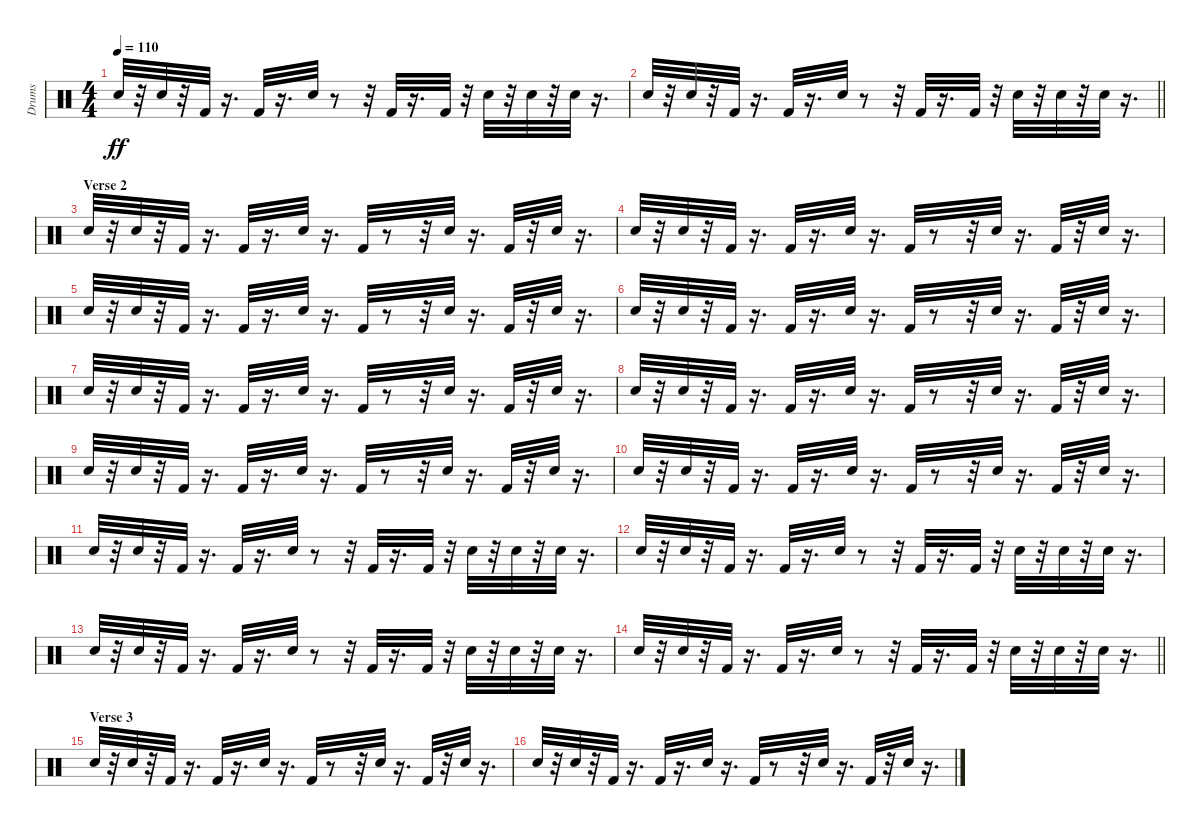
\track ("Drums" "Drums") {instrument percussion}
\staff {score}
\articulation defaults
\ts (4 4)
\tempo 110
\clef neutral
\ks c "Electric Snare (hit)".32{dy ff}
r.32 "Electric Snare (hit)".32 r.32 "Kick (hit) 2".32 r.16{d} "Kick (hit) 2".32 r.16{d} "Electric Snare (hit)".32 r.8 r.32 "Kick (hit) 2".32 r.16{d} "Kick (hit) 2".32 r.32 "Electric Snare (hit)".32 r.32 "Electric Snare (hit)".32 r.32 "Electric Snare (hit)".32 r.16{d} |
\barLineRight lightlight "Electric Snare (hit)".32
r.32 "Electric Snare (hit)".32 r.32 "Kick (hit) 2".32 r.16{d} "Kick (hit) 2".32 r.16{d} "Electric Snare (hit)".32 r.8 r.32 "Kick (hit) 2".32 r.16{d} "Kick (hit) 2".32 r.32 "Electric Snare (hit)".32 r.32 "Electric Snare (hit)".32 r.32 "Electric Snare (hit)".32 r.16{d} |
\section ("" "Verse 2")
"Electric Snare (hit)".32 r.32 "Electric Snare (hit)".32 r.32 "Kick (hit) 2".32 r.16{d} "Kick (hit) 2".32 r.16{d} "Electric Snare (hit)".32 r.16{d} "Kick (hit) 2".32 r.8 r.32 "Electric Snare (hit)".32 r.16{d} "Kick (hit) 2".32 r.32 "Electric Snare (hit)".32 r.16{d} |
"Electric Snare (hit)".32 r.32 "Electric Snare (hit)".32 r.32 "Kick (hit) 2".32 r.16{d} "Kick (hit) 2".32 r.16{d} "Electric Snare (hit)".32 r.16{d} "Kick (hit) 2".32 r.8 r.32 "Electric Snare (hit)".32 r.16{d} "Kick (hit) 2".32 r.32 "Electric Snare (hit)".32 r.16{d} |
"Electric Snare (hit)".32 r.32 "Electric Snare (hit)".32 r.32 "Kick (hit) 2".32 r.16{d} "Kick (hit) 2".32 r.16{d} "Electric Snare (hit)".32 r.16{d} "Kick (hit) 2".32 r.8 r.32 "Electric Snare (hit)".32 r.16{d} "Kick (hit) 2".32 r.32 "Electric Snare (hit)".32 r.16{d} |
"Electric Snare (hit)".32 r.32 "Electric Snare (hit)".32 r.32 "Kick (hit) 2".32 r.16{d} "Kick (hit) 2".32 r.16{d} "Electric Snare (hit)".32 r.16{d} "Kick (hit) 2".32 r.8 r.32 "Electric Snare (hit)".32 r.16{d} "Kick (hit) 2".32 r.32 "Electric Snare (hit)".32 r.16{d} |
"Electric Snare (hit)".32 r.32 "Electric Snare (hit)".32 r.32 "Kick (hit) 2".32 r.16{d} "Kick (hit) 2".32 r.16{d} "Electric Snare (hit)".32 r.16{d} "Kick (hit) 2".32 r.8 r.32 "Electric Snare (hit)".32 r.16{d} "Kick (hit) 2".32 r.32 "Electric Snare (hit)".32 r.16{d} |
"Electric Snare (hit)".32 r.32 "Electric Snare (hit)".32 r.32 "Kick (hit) 2".32 r.16{d} "Kick (hit) 2".32 r.16{d} "Electric Snare (hit)".32 r.16{d} "Kick (hit) 2".32 r.8 r.32 "Electric Snare (hit)".32 r.16{d} "Kick (hit) 2".32 r.32 "Electric Snare (hit)".32 r.16{d} |
"Electric Snare (hit)".32 r.32 "Electric Snare (hit)".32 r.32 "Kick (hit) 2".32 r.16{d} "Kick (hit) 2".32 r.16{d} "Electric Snare (hit)".32 r.16{d} "Kick (hit) 2".32 r.8 r.32 "Electric Snare (hit)".32 r.16{d} "Kick (hit) 2".32 r.32 "Electric Snare (hit)".32 r.16{d} |
"Electric Snare (hit)".32 r.32 "Electric Snare (hit)".32 r.32 "Kick (hit) 2".32 r.16{d} "Kick (hit) 2".32 r.16{d} "Electric Snare (hit)".32 r.16{d} "Kick (hit) 2".32 r.8 r.32 "Electric Snare (hit)".32 r.16{d} "Kick (hit) 2".32 r.32 "Electric Snare (hit)".32 r.16{d} |
"Electric Snare (hit)".32 r.32 "Electric Snare (hit)".32 r.32 "Kick (hit) 2".32 r.16{d} "Kick (hit) 2".32 r.16{d} "Electric Snare (hit)".32 r.8 r.32 "Kick (hit) 2".32 r.16{d} "Kick (hit) 2".32 r.32 "Electric Snare (hit)".32 r.32 "Electric Snare (hit)".32 r.32 "Electric Snare (hit)".32 r.16{d} |
"Electric Snare (hit)".32 r.32 "Electric Snare (hit)".32 r.32 "Kick (hit) 2".32 r.16{d} "Kick (hit) 2".32 r.16{d} "Electric Snare (hit)".32 r.8 r.32 "Kick (hit) 2".32 r.16{d} "Kick (hit) 2".32 r.32 "Electric Snare (hit)".32 r.32 "Electric Snare (hit)".32 r.32 "Electric Snare (hit)".32 r.16{d} |
"Electric Snare (hit)".32 r.32 "Electric Snare (hit)".32 r.32 "Kick (hit) 2".32 r.16{d} "Kick (hit) 2".32 r.16{d} "Electric Snare (hit)".32 r.8 r.32 "Kick (hit) 2".32 r.16{d} "Kick (hit) 2".32 r.32 "Electric Snare (hit)".32 r.32 "Electric Snare (hit)".32 r.32 "Electric Snare (hit)".32 r.16{d} |
\barLineRight lightlight "Electric Snare (hit)".32
r.32 "Electric Snare (hit)".32 r.32 "Kick (hit) 2".32 r.16{d} "Kick (hit) 2".32 r.16{d} "Electric Snare (hit)".32 r.8 r.32 "Kick (hit) 2".32 r.16{d} "Kick (hit) 2".32 r.32 "Electric Snare (hit)".32 r.32 "Electric Snare (hit)".32 r.32 "Electric Snare (hit)".32 r.16{d} |
\section ("" "Verse 3")
"Electric Snare (hit)".32 r.32 "Electric Snare (hit)".32 r.32 "Kick (hit) 2".32 r.16{d} "Kick (hit) 2".32 r.16{d} "Electric Snare (hit)".32 r.16{d} "Kick (hit) 2".32 r.8 r.32 "Electric Snare (hit)".32 r.16{d} "Kick (hit) 2".32 r.32 "Electric Snare (hit)".32 r.16{d} |
"Electric Snare (hit)".32 r.32 "Electric Snare (hit)".32 r.32 "Kick (hit) 2".32 r.16{d} "Kick (hit) 2".32 r.16{d} "Electric Snare (hit)".32 r.16{d} "Kick (hit) 2".32 r.8 r.32 "Electric Snare (hit)".32 r.16{d} "Kick (hit) 2".32 r.32 "Electric Snare (hit)".32 r.16{d}
